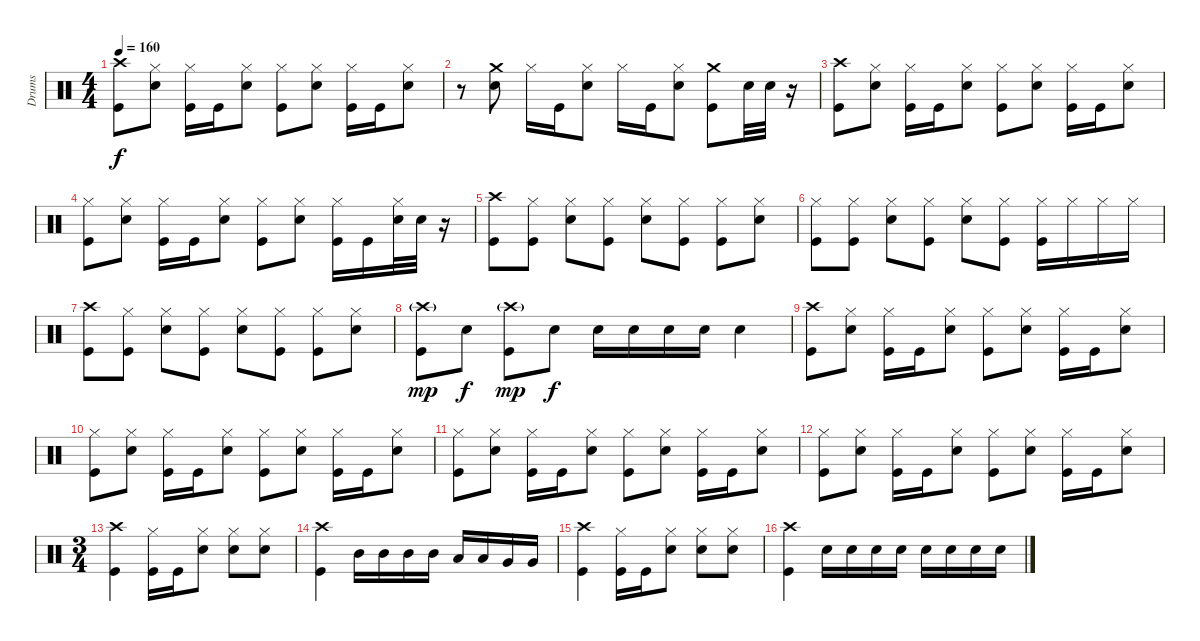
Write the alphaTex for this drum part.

\track ("Drums" "Drums") {instrument percussion}
\staff {score}
\articulation defaults
\ts (4 4)
\tempo 160
\clef neutral
\ks c
("Crash high (hit)" "Kick (hit)").8{dy f} ("Hi-Hat (closed)" "Electric Snare (hit)").8 ("Hi-Hat (closed)" "Kick (hit)").16 "Kick (hit)".16 ("Hi-Hat (closed)" "Electric Snare (hit)").8 ("Hi-Hat (closed)" "Kick (hit)").8 ("Hi-Hat (closed)" "Electric Snare (hit)").8 ("Hi-Hat (closed)" "Kick (hit)").16 "Kick (hit)".16 ("Hi-Hat (closed)" "Electric Snare (hit)").8 |
r.8 ("Crash medium (hit)" "Electric Snare (hit)").8 "Hi-Hat (closed)".16 "Kick (hit)".16 ("Hi-Hat (closed)" "Electric Snare (hit)").8 "Hi-Hat (closed)".16 "Kick (hit)".16 ("Hi-Hat (closed)" "Electric Snare (hit)").8 ("Crash medium (hit)" "Kick (hit)").8 "Electric Snare (hit)".32 "Electric Snare (hit)".32 r.16 |
("Crash high (hit)" "Kick (hit)").8 ("Hi-Hat (closed)" "Electric Snare (hit)").8 ("Hi-Hat (closed)" "Kick (hit)").16 "Kick (hit)".16 ("Hi-Hat (closed)" "Electric Snare (hit)").8 ("Hi-Hat (closed)" "Kick (hit)").8 ("Hi-Hat (closed)" "Electric Snare (hit)").8 ("Hi-Hat (closed)" "Kick (hit)").16 "Kick (hit)".16 ("Hi-Hat (closed)" "Electric Snare (hit)").8 |
("Hi-Hat (closed)" "Kick (hit)").8 ("Hi-Hat (closed)" "Electric Snare (hit)").8 ("Hi-Hat (closed)" "Kick (hit)").16 "Kick (hit)".16 ("Hi-Hat (closed)" "Electric Snare (hit)").8 ("Hi-Hat (closed)" "Kick (hit)").8 ("Hi-Hat (closed)" "Electric Snare (hit)").8 ("Hi-Hat (closed)" "Kick (hit)").16 "Kick (hit)".16 ("Hi-Hat (closed)" "Electric Snare (hit)").32 "Electric Snare (hit)".32 r.16 |
("Crash high (hit)" "Kick (hit)").8 ("Hi-Hat (closed)" "Kick (hit)").8 ("Hi-Hat (closed)" "Electric Snare (hit)").8 ("Hi-Hat (closed)" "Kick (hit)").8 ("Hi-Hat (closed)" "Electric Snare (hit)").8 ("Hi-Hat (closed)" "Kick (hit)").8 ("Hi-Hat (closed)" "Kick (hit)").8 ("Hi-Hat (closed)" "Electric Snare (hit)").8 |
("Hi-Hat (closed)" "Kick (hit)").8 ("Hi-Hat (closed)" "Kick (hit)").8 ("Hi-Hat (closed)" "Electric Snare (hit)").8 ("Hi-Hat (closed)" "Kick (hit)").8 ("Hi-Hat (closed)" "Electric Snare (hit)").8 ("Hi-Hat (closed)" "Kick (hit)").8 ("Hi-Hat (closed)" "Kick (hit)").16 "Hi-Hat (closed)".16 "Hi-Hat (closed)".16 "Hi-Hat (closed)".16 |
("Crash high (hit)" "Kick (hit)").8 ("Hi-Hat (closed)" "Kick (hit)").8 ("Hi-Hat (closed)" "Electric Snare (hit)").8 ("Hi-Hat (closed)" "Kick (hit)").8 ("Hi-Hat (closed)" "Electric Snare (hit)").8 ("Hi-Hat (closed)" "Kick (hit)").8 ("Hi-Hat (closed)" "Kick (hit)").8 ("Hi-Hat (closed)" "Electric Snare (hit)").8 |
("Crash high (hit)"{g} "Kick (hit)").8{dy mp} "Electric Snare (hit)".8{dy f} ("Crash high (hit)"{g} "Kick (hit)").8{dy mp} "Electric Snare (hit)".8{dy f} "Electric Snare (hit)".16 "Electric Snare (hit)".16 "Electric Snare (hit)".16 "Electric Snare (hit)".16 "Electric Snare (hit)".4 |
("Crash high (hit)" "Kick (hit)").8 ("Hi-Hat (closed)" "Electric Snare (hit)").8 ("Hi-Hat (closed)" "Kick (hit)").16 "Kick (hit)".16 ("Hi-Hat (closed)" "Electric Snare (hit)").8 ("Hi-Hat (closed)" "Kick (hit)").8 ("Hi-Hat (closed)" "Electric Snare (hit)").8 ("Hi-Hat (closed)" "Kick (hit)").16 "Kick (hit)".16 ("Hi-Hat (closed)" "Electric Snare (hit)").8 |
("Hi-Hat (closed)" "Kick (hit)").8 ("Hi-Hat (closed)" "Electric Snare (hit)").8 ("Hi-Hat (closed)" "Kick (hit)").16 "Kick (hit)".16 ("Hi-Hat (closed)" "Electric Snare (hit)").8 ("Hi-Hat (closed)" "Kick (hit)").8 ("Hi-Hat (closed)" "Electric Snare (hit)").8 ("Hi-Hat (closed)" "Kick (hit)").16 "Kick (hit)".16 ("Hi-Hat (closed)" "Electric Snare (hit)").8 |
("Hi-Hat (closed)" "Kick (hit)").8 ("Hi-Hat (closed)" "Electric Snare (hit)").8 ("Hi-Hat (closed)" "Kick (hit)").16 "Kick (hit)".16 ("Hi-Hat (closed)" "Electric Snare (hit)").8 ("Hi-Hat (closed)" "Kick (hit)").8 ("Hi-Hat (closed)" "Electric Snare (hit)").8 ("Hi-Hat (closed)" "Kick (hit)").16 "Kick (hit)".16 ("Hi-Hat (closed)" "Electric Snare (hit)").8 |
("Hi-Hat (closed)" "Kick (hit)").8 ("Hi-Hat (closed)" "Electric Snare (hit)").8 ("Hi-Hat (closed)" "Kick (hit)").16 "Kick (hit)".16 ("Hi-Hat (closed)" "Electric Snare (hit)").8 ("Hi-Hat (closed)" "Kick (hit)").8 ("Hi-Hat (closed)" "Electric Snare (hit)").8 ("Hi-Hat (closed)" "Kick (hit)").16 "Kick (hit)".16 ("Hi-Hat (closed)" "Electric Snare (hit)").8 |
\ts (3 4)
("Crash high (hit)" "Kick (hit)").4 ("Hi-Hat (closed)" "Kick (hit)").16 "Kick (hit)".16 ("Hi-Hat (closed)" "Electric Snare (hit)").8 ("Hi-Hat (closed)" "Electric Snare (hit)").8 ("Hi-Hat (closed)" "Electric Snare (hit)").8 |
("Crash high (hit)" "Kick (hit)").4 "Mid Tom (hit)".16 "Mid Tom (hit)".16 "Mid Tom (hit)".16 "Mid Tom (hit)".16 "Low Tom (hit)".16 "Low Tom (hit)".16 "Very Low Tom (hit)".16 "Very Low Tom (hit)".16 |
("Crash high (hit)" "Kick (hit)").4 ("Hi-Hat (closed)" "Kick (hit)").16 "Kick (hit)".16 ("Hi-Hat (closed)" "Electric Snare (hit)").8 ("Hi-Hat (closed)" "Electric Snare (hit)").8 ("Hi-Hat (closed)" "Electric Snare (hit)").8 |
("Crash high (hit)" "Kick (hit)").4 "Electric Snare (hit)".16 "Electric Snare (hit)".16 "Electric Snare (hit)".16 "Electric Snare (hit)".16 "Electric Snare (hit)".16 "Electric Snare (hit)".16 "Electric Snare (hit)".16 "Electric Snare (hit)".16
